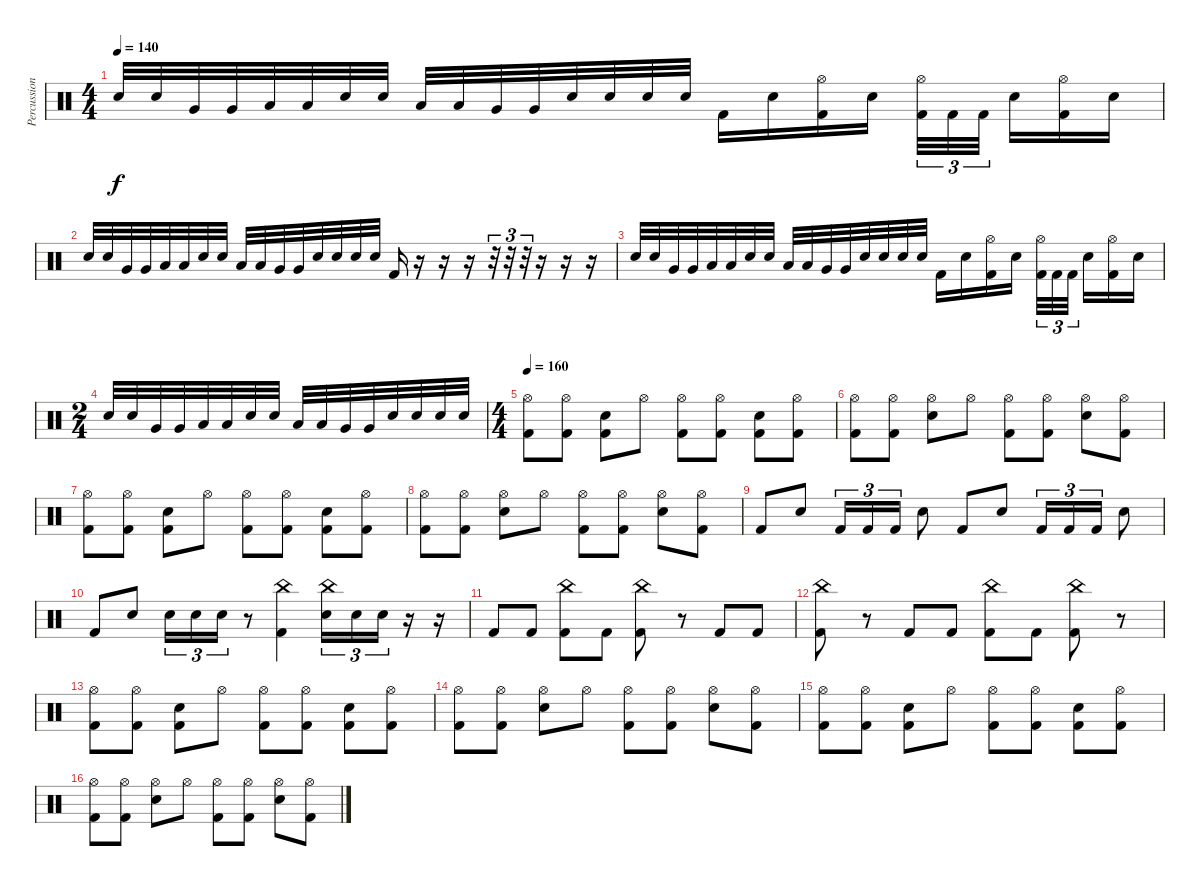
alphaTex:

\track ("Percussion" "Percussion") {instrument percussion}
\staff {score}
\articulation defaults
\ts (4 4)
\tempo 140
\clef neutral
\ks c "Snare (hit) 2".32{dy f} "Snare (hit) 2".32 "Very Low Tom (hit)".32 "Very Low Tom (hit)".32 "Low Floor Tom (hit)".32 "Low Floor Tom (hit)".32 "Snare (hit) 2".32 "Snare (hit) 2".32 "Low Tom (hit)".32 "Low Tom (hit)".32 "Very Low Tom (hit)".32 "Very Low Tom (hit)".32 "Snare (hit) 2".32 "Snare (hit) 2".32 "Snare (hit) 2".32 "Snare (hit) 2".32 "Kick (hit) 2".16 "Snare (hit) 2".16
("Hi-Hat (open)" "Kick (hit) 2").16 "Snare (hit) 2".16 ("Hi-Hat (open)" "Kick (hit) 2").32{tu (3 2)} "Kick (hit) 2".32{tu (3 2)} "Kick (hit) 2".32{tu (3 2)} "Snare (hit) 2".16 ("Hi-Hat (open)" "Kick (hit) 2").16 "Snare (hit) 2".16 |
"Snare (hit) 2".32 "Snare (hit) 2".32 "Very Low Tom (hit)".32 "Very Low Tom (hit)".32 "Low Floor Tom (hit)".32 "Low Floor Tom (hit)".32 "Snare (hit) 2".32 "Snare (hit) 2".32 "Low Tom (hit)".32 "Low Tom (hit)".32 "Very Low Tom (hit)".32 "Very Low Tom (hit)".32 "Snare (hit) 2".32 "Snare (hit) 2".32 "Snare (hit) 2".32 "Snare (hit) 2".32 "Kick (hit) 2".16 r.16 r.16 r.16 r.32{tu (3 2)} r.32{tu (3 2)} r.32{tu (3 2)} r.16 r.16 r.16 |
"Snare (hit) 2".32 "Snare (hit) 2".32 "Very Low Tom (hit)".32 "Very Low Tom (hit)".32 "Low Floor Tom (hit)".32 "Low Floor Tom (hit)".32 "Snare (hit) 2".32 "Snare (hit) 2".32 "Low Tom (hit)".32 "Low Tom (hit)".32 "Very Low Tom (hit)".32 "Very Low Tom (hit)".32 "Snare (hit) 2".32 "Snare (hit) 2".32 "Snare (hit) 2".32 "Snare (hit) 2".32 "Kick (hit) 2".16 "Snare (hit) 2".16 ("Hi-Hat (open)" "Kick (hit) 2").16 "Snare (hit) 2".16 ("Hi-Hat (open)" "Kick (hit) 2").32{tu (3 2)} "Kick (hit) 2".32{tu (3 2)} "Kick (hit) 2".32{tu (3 2)} "Snare (hit) 2".16 ("Hi-Hat (open)" "Kick (hit) 2").16 "Snare (hit) 2".16 |
\ts (2 4)
"Snare (hit) 2".32 "Snare (hit) 2".32 "Very Low Tom (hit)".32 "Very Low Tom (hit)".32 "Low Floor Tom (hit)".32 "Low Floor Tom (hit)".32 "Snare (hit) 2".32 "Snare (hit) 2".32 "Low Tom (hit)".32 "Low Tom (hit)".32 "Very Low Tom (hit)".32 "Very Low Tom (hit)".32 "Snare (hit) 2".32 "Snare (hit) 2".32 "Snare (hit) 2".32 "Snare (hit) 2".32 |
\ts (4 4)
\tempo 160
("Hi-Hat (open)" "Kick (hit) 2").8 ("Hi-Hat (open)" "Kick (hit) 2").8 ("Kick (hit) 2" "Snare (hit) 2").8 "Hi-Hat (open)".8 ("Hi-Hat (open)" "Kick (hit) 2").8 ("Hi-Hat (open)" "Kick (hit) 2").8 ("Kick (hit) 2" "Snare (hit) 2").8 ("Hi-Hat (open)" "Kick (hit) 2").8 |
("Hi-Hat (open)" "Kick (hit) 2").8 ("Hi-Hat (open)" "Kick (hit) 2").8 ("Hi-Hat (open)" "Snare (hit) 2").8 "Hi-Hat (open)".8 ("Hi-Hat (open)" "Kick (hit) 2").8 ("Hi-Hat (open)" "Kick (hit) 2").8 ("Hi-Hat (open)" "Snare (hit) 2").8 ("Hi-Hat (open)" "Kick (hit) 2").8 |
("Hi-Hat (open)" "Kick (hit) 2").8 ("Hi-Hat (open)" "Kick (hit) 2").8 ("Kick (hit) 2" "Snare (hit) 2").8 "Hi-Hat (open)".8 ("Hi-Hat (open)" "Kick (hit) 2").8 ("Hi-Hat (open)" "Kick (hit) 2").8 ("Kick (hit) 2" "Snare (hit) 2").8 ("Hi-Hat (open)" "Kick (hit) 2").8 |
("Hi-Hat (open)" "Kick (hit) 2").8 ("Hi-Hat (open)" "Kick (hit) 2").8 ("Hi-Hat (open)" "Snare (hit) 2").8 "Hi-Hat (open)".8 ("Hi-Hat (open)" "Kick (hit) 2").8 ("Hi-Hat (open)" "Kick (hit) 2").8 ("Hi-Hat (open)" "Snare (hit) 2").8 ("Hi-Hat (open)" "Kick (hit) 2").8 |
"Kick (hit) 2".8 "Snare (hit) 2".8 "Kick (hit) 2".16{tu (3 2)} "Kick (hit) 2".16{tu (3 2)} "Kick (hit) 2".16{tu (3 2)} "Snare (hit) 2".8 "Kick (hit) 2".8 "Snare (hit) 2".8 "Kick (hit) 2".16{tu (3 2)} "Kick (hit) 2".16{tu (3 2)} "Kick (hit) 2".16{tu (3 2)} "Snare (hit) 2".8 |
"Kick (hit) 2".8 "Snare (hit) 2".8 "Snare (hit) 2".16{tu (3 2)} "Snare (hit) 2".16{tu (3 2)} "Snare (hit) 2".16{tu (3 2)} r.8 ("China (hit)" "Kick (hit) 2").4 ("China (hit)" "Snare (hit) 2").16{tu (3 2)} "Snare (hit) 2".16{tu (3 2)} "Snare (hit) 2".16{tu (3 2)} r.16 r.16 |
"Kick (hit) 2".8 "Kick (hit) 2".8 ("China (hit)" "Kick (hit) 2").8 "Kick (hit) 2".8 ("China (hit)" "Kick (hit) 2").8 r.8 "Kick (hit) 2".8 "Kick (hit) 2".8 |
("China (hit)" "Kick (hit) 2").8 r.8 "Kick (hit) 2".8 "Kick (hit) 2".8 ("China (hit)" "Kick (hit) 2").8 "Kick (hit) 2".8 ("China (hit)" "Kick (hit) 2").8 r.8 |
("Hi-Hat (open)" "Kick (hit) 2").8 ("Hi-Hat (open)" "Kick (hit) 2").8 ("Kick (hit) 2" "Snare (hit) 2").8 "Hi-Hat (open)".8 ("Hi-Hat (open)" "Kick (hit) 2").8 ("Hi-Hat (open)" "Kick (hit) 2").8 ("Kick (hit) 2" "Snare (hit) 2").8 ("Hi-Hat (open)" "Kick (hit) 2").8 |
("Hi-Hat (open)" "Kick (hit) 2").8 ("Hi-Hat (open)" "Kick (hit) 2").8 ("Hi-Hat (open)" "Snare (hit) 2").8 "Hi-Hat (open)".8 ("Hi-Hat (open)" "Kick (hit) 2").8 ("Hi-Hat (open)" "Kick (hit) 2").8 ("Hi-Hat (open)" "Snare (hit) 2").8 ("Hi-Hat (open)" "Kick (hit) 2").8 |
("Hi-Hat (open)" "Kick (hit) 2").8 ("Hi-Hat (open)" "Kick (hit) 2").8 ("Kick (hit) 2" "Snare (hit) 2").8 "Hi-Hat (open)".8 ("Hi-Hat (open)" "Kick (hit) 2").8 ("Hi-Hat (open)" "Kick (hit) 2").8 ("Kick (hit) 2" "Snare (hit) 2").8 ("Hi-Hat (open)" "Kick (hit) 2").8 |
("Hi-Hat (open)" "Kick (hit) 2").8 ("Hi-Hat (open)" "Kick (hit) 2").8 ("Hi-Hat (open)" "Snare (hit) 2").8 "Hi-Hat (open)".8 ("Hi-Hat (open)" "Kick (hit) 2").8 ("Hi-Hat (open)" "Kick (hit) 2").8 ("Hi-Hat (open)" "Snare (hit) 2").8 ("Hi-Hat (open)" "Kick (hit) 2").8
